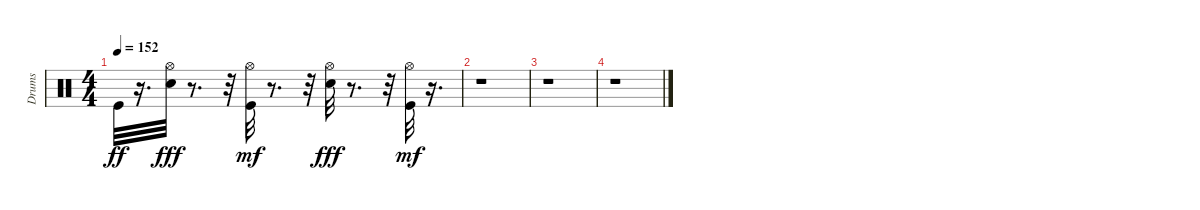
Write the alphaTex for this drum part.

\track ("Drums" "Drums") {instrument percussion}
\staff {score}
\articulation defaults
\ts (4 4)
\tempo 152
\clef neutral
\ks c "Kick (hit)".32{dy ff}
r.16{d} ("Hi-Hat (open)" "Snare (hit) 2").32{dy fff} r.8{d} r.32 ("Hi-Hat (open)" "Kick (hit)").32{dy mf} r.8{d} r.32 ("Hi-Hat (open)" "Snare (hit) 2").32{dy fff} r.8{d} r.32 ("Kick (hit)" "Hi-Hat (open)").32{dy mf} r.16{d} |
r.1 |
r.1 |
r.1
